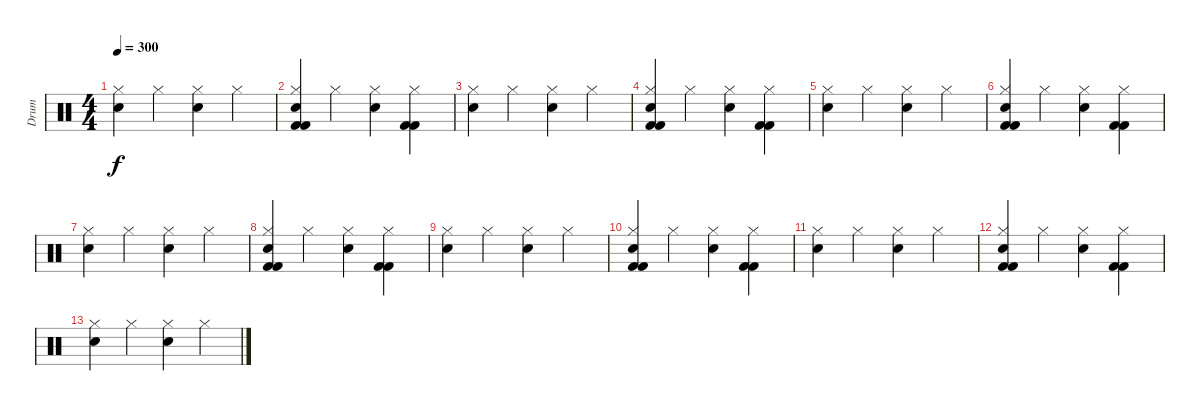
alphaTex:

\track ("Drum" "Drum") {instrument percussion}
\staff {score}
\articulation defaults
\ts (4 4)
\tempo 300
\clef neutral
\ks c
("Electric Snare (hit)" "Hi-Hat (closed)").4{dy f} "Hi-Hat (closed)".4 ("Electric Snare (hit)" "Hi-Hat (closed)").4 "Hi-Hat (closed)".4 |
("Electric Snare (hit)" "Hi-Hat (closed)" "Kick (hit) 2" "Kick (hit) 2").4 "Hi-Hat (closed)".4 ("Electric Snare (hit)" "Hi-Hat (closed)").4 ("Hi-Hat (closed)" "Kick (hit) 2" "Kick (hit) 2").4 |
("Electric Snare (hit)" "Hi-Hat (closed)").4 "Hi-Hat (closed)".4 ("Electric Snare (hit)" "Hi-Hat (closed)").4 "Hi-Hat (closed)".4 |
("Electric Snare (hit)" "Hi-Hat (closed)" "Kick (hit) 2" "Kick (hit) 2").4 "Hi-Hat (closed)".4 ("Electric Snare (hit)" "Hi-Hat (closed)").4 ("Hi-Hat (closed)" "Kick (hit) 2" "Kick (hit) 2").4 |
("Electric Snare (hit)" "Hi-Hat (closed)").4 "Hi-Hat (closed)".4 ("Electric Snare (hit)" "Hi-Hat (closed)").4 "Hi-Hat (closed)".4 |
("Electric Snare (hit)" "Hi-Hat (closed)" "Kick (hit) 2" "Kick (hit) 2").4 "Hi-Hat (closed)".4 ("Electric Snare (hit)" "Hi-Hat (closed)").4 ("Hi-Hat (closed)" "Kick (hit) 2" "Kick (hit) 2").4 |
("Electric Snare (hit)" "Hi-Hat (closed)").4 "Hi-Hat (closed)".4 ("Electric Snare (hit)" "Hi-Hat (closed)").4 "Hi-Hat (closed)".4 |
("Electric Snare (hit)" "Hi-Hat (closed)" "Kick (hit) 2" "Kick (hit) 2").4 "Hi-Hat (closed)".4 ("Electric Snare (hit)" "Hi-Hat (closed)").4 ("Hi-Hat (closed)" "Kick (hit) 2" "Kick (hit) 2").4 |
("Electric Snare (hit)" "Hi-Hat (closed)").4 "Hi-Hat (closed)".4 ("Electric Snare (hit)" "Hi-Hat (closed)").4 "Hi-Hat (closed)".4 |
("Electric Snare (hit)" "Hi-Hat (closed)" "Kick (hit) 2" "Kick (hit) 2").4 "Hi-Hat (closed)".4 ("Electric Snare (hit)" "Hi-Hat (closed)").4 ("Hi-Hat (closed)" "Kick (hit) 2" "Kick (hit) 2").4 |
("Electric Snare (hit)" "Hi-Hat (closed)").4 "Hi-Hat (closed)".4 ("Electric Snare (hit)" "Hi-Hat (closed)").4 "Hi-Hat (closed)".4 |
("Electric Snare (hit)" "Hi-Hat (closed)" "Kick (hit) 2" "Kick (hit) 2").4 "Hi-Hat (closed)".4 ("Electric Snare (hit)" "Hi-Hat (closed)").4 ("Hi-Hat (closed)" "Kick (hit) 2" "Kick (hit) 2").4 |
("Electric Snare (hit)" "Hi-Hat (closed)").4 "Hi-Hat (closed)".4 ("Electric Snare (hit)" "Hi-Hat (closed)").4 "Hi-Hat (closed)".4
